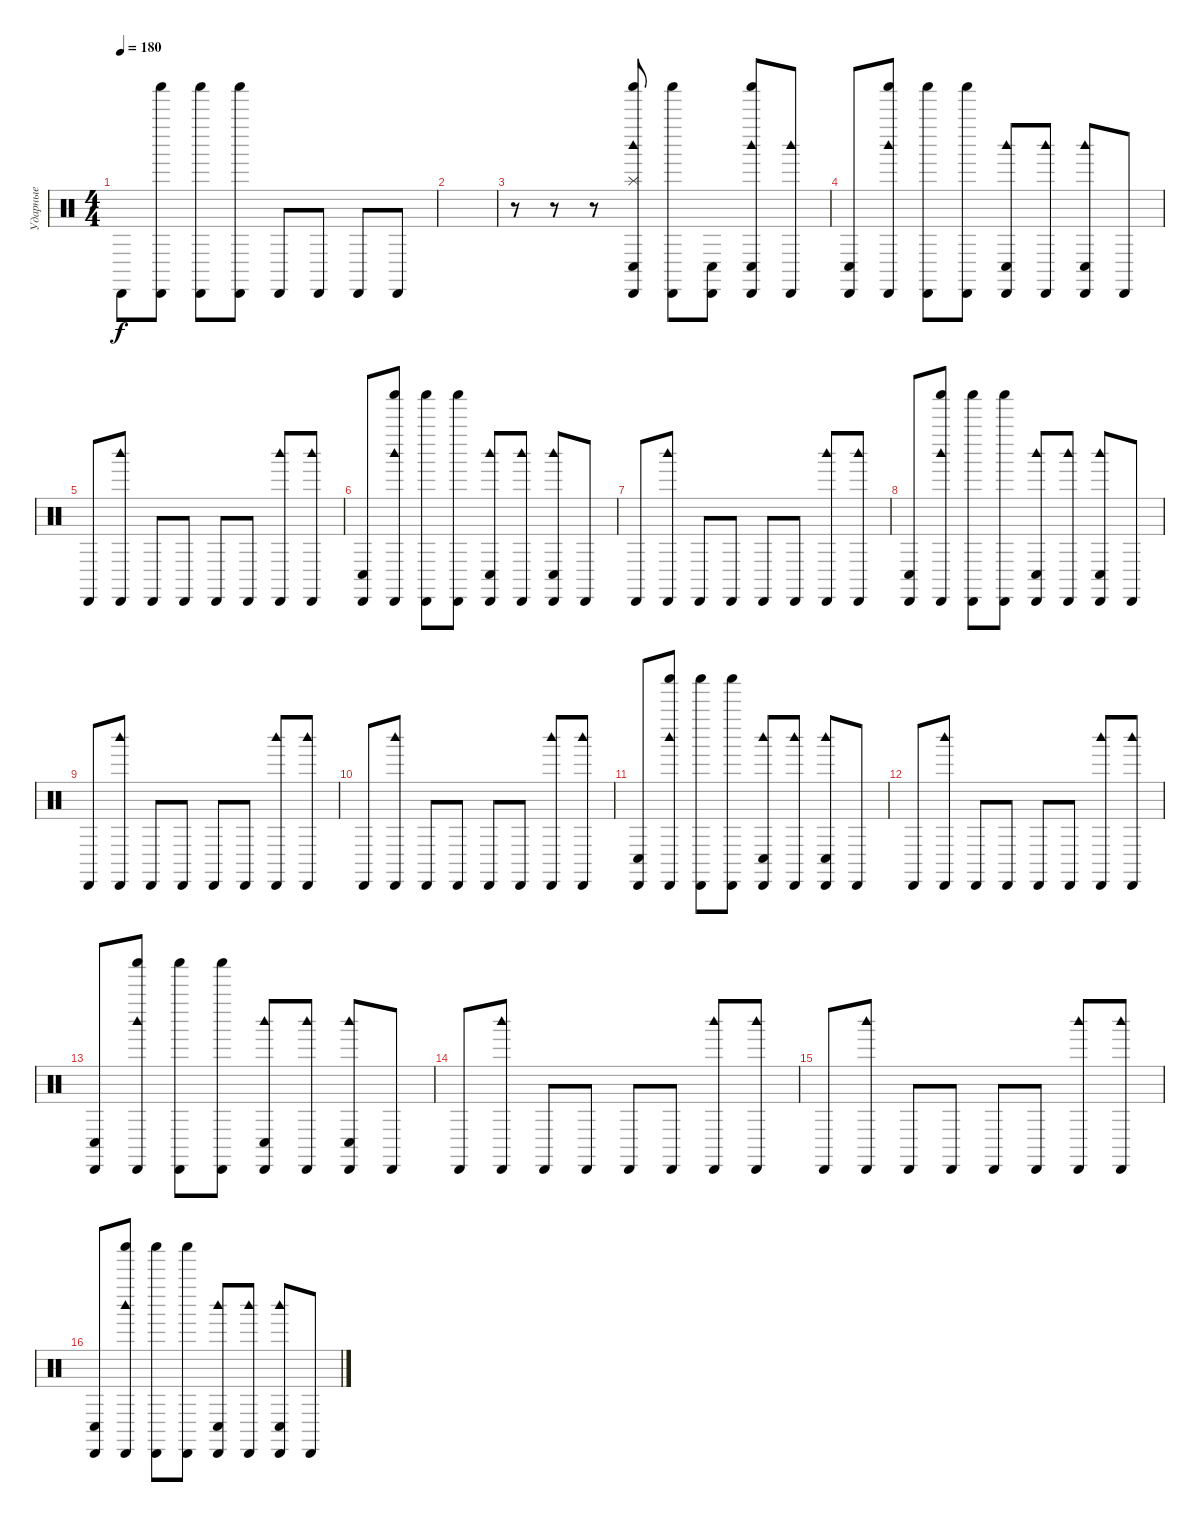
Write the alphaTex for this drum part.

\track ("Ударные" "Ударные") {instrument percussion}
\staff {score}
\articulation defaults
\ts (4 4)
\tempo 180
\clef neutral
\ks c "Cabasa (hit)".8{dy f}
("Shaker (hit)" "Cabasa (hit)").8 ("Shaker (hit)" "Cabasa (hit)").8 ("Shaker (hit)" "Cabasa (hit)").8 "Cabasa (hit)".8 "Cabasa (hit)".8 "Cabasa (hit)".8 "Cabasa (hit)".8 |
|
r.8 r.8 r.8 ("Woodblock high (hit)" "Shaker (hit)" "Cabasa (hit)" "Splash (hit)" "Conga low (hit)").8 ("Shaker (hit)" "Cabasa (hit)").8 ("Cabasa (hit)" "Conga low (hit)").8 ("Woodblock high (hit)" "Shaker (hit)" "Cabasa (hit)" "Conga low (hit)").8 ("Woodblock high (hit)" "Cabasa (hit)").8 |
("Cabasa (hit)" "Conga low (hit)").8 ("Woodblock high (hit)" "Shaker (hit)" "Cabasa (hit)").8 ("Shaker (hit)" "Cabasa (hit)").8 ("Shaker (hit)" "Cabasa (hit)").8 ("Woodblock high (hit)" "Cabasa (hit)" "Conga low (hit)").8 ("Woodblock high (hit)" "Cabasa (hit)").8 ("Woodblock high (hit)" "Cabasa (hit)" "Conga low (hit)").8 "Cabasa (hit)".8 |
"Cabasa (hit)".8 ("Woodblock high (hit)" "Cabasa (hit)").8 "Cabasa (hit)".8 "Cabasa (hit)".8 "Cabasa (hit)".8 "Cabasa (hit)".8 ("Woodblock high (hit)" "Cabasa (hit)").8 ("Woodblock high (hit)" "Cabasa (hit)").8 |
("Cabasa (hit)" "Conga low (hit)").8 ("Woodblock high (hit)" "Shaker (hit)" "Cabasa (hit)").8 ("Shaker (hit)" "Cabasa (hit)").8 ("Shaker (hit)" "Cabasa (hit)").8 ("Woodblock high (hit)" "Cabasa (hit)" "Conga low (hit)").8 ("Woodblock high (hit)" "Cabasa (hit)").8 ("Woodblock high (hit)" "Cabasa (hit)" "Conga low (hit)").8 "Cabasa (hit)".8 |
"Cabasa (hit)".8 ("Woodblock high (hit)" "Cabasa (hit)").8 "Cabasa (hit)".8 "Cabasa (hit)".8 "Cabasa (hit)".8 "Cabasa (hit)".8 ("Woodblock high (hit)" "Cabasa (hit)").8 ("Woodblock high (hit)" "Cabasa (hit)").8 |
("Cabasa (hit)" "Conga low (hit)").8 ("Woodblock high (hit)" "Shaker (hit)" "Cabasa (hit)").8 ("Shaker (hit)" "Cabasa (hit)").8 ("Shaker (hit)" "Cabasa (hit)").8 ("Woodblock high (hit)" "Cabasa (hit)" "Conga low (hit)").8 ("Woodblock high (hit)" "Cabasa (hit)").8 ("Woodblock high (hit)" "Cabasa (hit)" "Conga low (hit)").8 "Cabasa (hit)".8 |
"Cabasa (hit)".8 ("Woodblock high (hit)" "Cabasa (hit)").8 "Cabasa (hit)".8 "Cabasa (hit)".8 "Cabasa (hit)".8 "Cabasa (hit)".8 ("Woodblock high (hit)" "Cabasa (hit)").8 ("Woodblock high (hit)" "Cabasa (hit)").8 |
"Cabasa (hit)".8 ("Woodblock high (hit)" "Cabasa (hit)").8 "Cabasa (hit)".8 "Cabasa (hit)".8 "Cabasa (hit)".8 "Cabasa (hit)".8 ("Woodblock high (hit)" "Cabasa (hit)").8 ("Woodblock high (hit)" "Cabasa (hit)").8 |
("Cabasa (hit)" "Conga low (hit)").8 ("Woodblock high (hit)" "Shaker (hit)" "Cabasa (hit)").8 ("Shaker (hit)" "Cabasa (hit)").8 ("Shaker (hit)" "Cabasa (hit)").8 ("Woodblock high (hit)" "Cabasa (hit)" "Conga low (hit)").8 ("Woodblock high (hit)" "Cabasa (hit)").8 ("Woodblock high (hit)" "Cabasa (hit)" "Conga low (hit)").8 "Cabasa (hit)".8 |
"Cabasa (hit)".8 ("Woodblock high (hit)" "Cabasa (hit)").8 "Cabasa (hit)".8 "Cabasa (hit)".8 "Cabasa (hit)".8 "Cabasa (hit)".8 ("Woodblock high (hit)" "Cabasa (hit)").8 ("Woodblock high (hit)" "Cabasa (hit)").8 |
("Cabasa (hit)" "Conga low (hit)").8 ("Woodblock high (hit)" "Shaker (hit)" "Cabasa (hit)").8 ("Shaker (hit)" "Cabasa (hit)").8 ("Shaker (hit)" "Cabasa (hit)").8 ("Woodblock high (hit)" "Cabasa (hit)" "Conga low (hit)").8 ("Woodblock high (hit)" "Cabasa (hit)").8 ("Woodblock high (hit)" "Cabasa (hit)" "Conga low (hit)").8 "Cabasa (hit)".8 |
"Cabasa (hit)".8 ("Woodblock high (hit)" "Cabasa (hit)").8 "Cabasa (hit)".8 "Cabasa (hit)".8 "Cabasa (hit)".8 "Cabasa (hit)".8 ("Woodblock high (hit)" "Cabasa (hit)").8 ("Woodblock high (hit)" "Cabasa (hit)").8 |
"Cabasa (hit)".8 ("Woodblock high (hit)" "Cabasa (hit)").8 "Cabasa (hit)".8 "Cabasa (hit)".8 "Cabasa (hit)".8 "Cabasa (hit)".8 ("Woodblock high (hit)" "Cabasa (hit)").8 ("Woodblock high (hit)" "Cabasa (hit)").8 |
("Cabasa (hit)" "Conga low (hit)").8 ("Woodblock high (hit)" "Shaker (hit)" "Cabasa (hit)").8 ("Shaker (hit)" "Cabasa (hit)").8 ("Shaker (hit)" "Cabasa (hit)").8 ("Woodblock high (hit)" "Cabasa (hit)" "Conga low (hit)").8 ("Woodblock high (hit)" "Cabasa (hit)").8 ("Woodblock high (hit)" "Cabasa (hit)" "Conga low (hit)").8 "Cabasa (hit)".8
